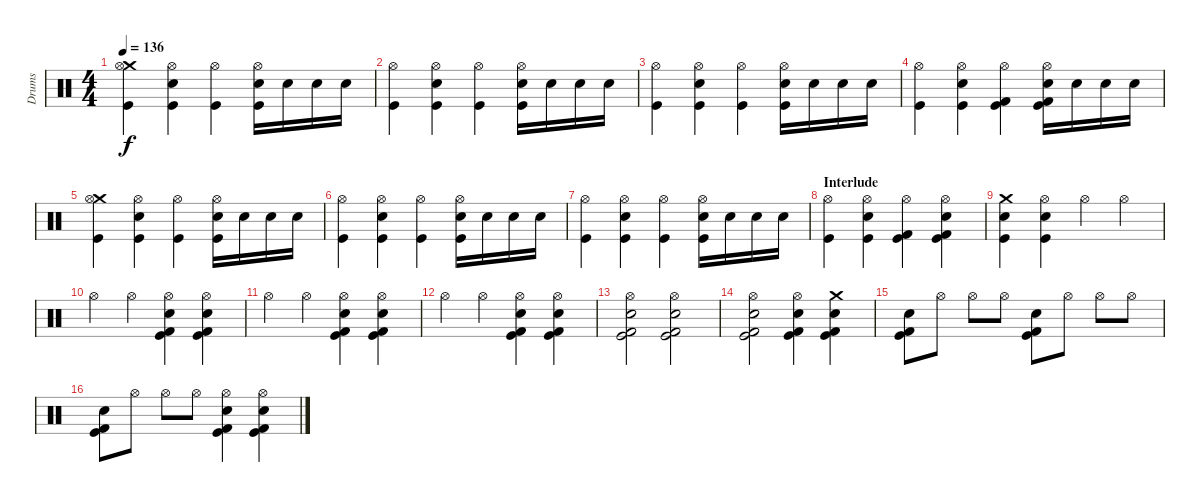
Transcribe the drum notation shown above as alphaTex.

\track ("Drums" "Drums") {instrument percussion}
\staff {score}
\articulation defaults
\ts (4 4)
\tempo 136
\clef neutral
\ks c
("Crash medium (hit)" "Hi-Hat (open)" "Kick (hit)").4{dy f} ("Hi-Hat (open)" "Electric Snare (hit)" "Kick (hit)").4 ("Hi-Hat (open)" "Kick (hit)").4 ("Hi-Hat (open)" "Electric Snare (hit)" "Kick (hit)").16 "Electric Snare (hit)".16 "Electric Snare (hit)".16 "Electric Snare (hit)".16 |
("Hi-Hat (open)" "Kick (hit)").4 ("Hi-Hat (open)" "Electric Snare (hit)" "Kick (hit)").4 ("Hi-Hat (open)" "Kick (hit)").4 ("Hi-Hat (open)" "Electric Snare (hit)" "Kick (hit)").16 "Electric Snare (hit)".16 "Electric Snare (hit)".16 "Electric Snare (hit)".16 |
("Hi-Hat (open)" "Kick (hit)").4 ("Hi-Hat (open)" "Electric Snare (hit)" "Kick (hit)").4 ("Hi-Hat (open)" "Kick (hit)").4 ("Hi-Hat (open)" "Electric Snare (hit)" "Kick (hit)").16 "Electric Snare (hit)".16 "Electric Snare (hit)".16 "Electric Snare (hit)".16 |
("Hi-Hat (open)" "Kick (hit)").4 ("Hi-Hat (open)" "Electric Snare (hit)" "Kick (hit)").4 ("Hi-Hat (open)" "Kick (hit) 2" "Kick (hit)").4 ("Hi-Hat (open)" "Electric Snare (hit)" "Kick (hit) 2" "Kick (hit)").16 "Electric Snare (hit)".16 "Electric Snare (hit)".16 "Electric Snare (hit)".16 |
("Crash medium (hit)" "Hi-Hat (open)" "Kick (hit)").4 ("Hi-Hat (open)" "Electric Snare (hit)" "Kick (hit)").4 ("Hi-Hat (open)" "Kick (hit)").4 ("Hi-Hat (open)" "Electric Snare (hit)" "Kick (hit)").16 "Electric Snare (hit)".16 "Electric Snare (hit)".16 "Electric Snare (hit)".16 |
("Hi-Hat (open)" "Kick (hit)").4 ("Hi-Hat (open)" "Electric Snare (hit)" "Kick (hit)").4 ("Hi-Hat (open)" "Kick (hit)").4 ("Hi-Hat (open)" "Electric Snare (hit)" "Kick (hit)").16 "Electric Snare (hit)".16 "Electric Snare (hit)".16 "Electric Snare (hit)".16 |
("Hi-Hat (open)" "Kick (hit)").4 ("Hi-Hat (open)" "Electric Snare (hit)" "Kick (hit)").4 ("Hi-Hat (open)" "Kick (hit)").4 ("Hi-Hat (open)" "Electric Snare (hit)" "Kick (hit)").16 "Electric Snare (hit)".16 "Electric Snare (hit)".16 "Electric Snare (hit)".16 |
\section ("" "Interlude")
("Hi-Hat (open)" "Kick (hit)").4 ("Hi-Hat (open)" "Electric Snare (hit)" "Kick (hit)").4 ("Hi-Hat (open)" "Kick (hit) 2" "Kick (hit)").4 ("Hi-Hat (open)" "Electric Snare (hit)" "Kick (hit) 2" "Kick (hit)").4 |
("Crash medium (hit)" "Electric Snare (hit)" "Kick (hit)").4 ("Hi-Hat (open)" "Electric Snare (hit)" "Kick (hit)").4 "Hi-Hat (open)".4 "Hi-Hat (open)".4 |
"Hi-Hat (open)".4 "Hi-Hat (open)".4 ("Hi-Hat (open)" "Electric Snare (hit)" "Kick (hit) 2" "Kick (hit)").4 ("Hi-Hat (open)" "Electric Snare (hit)" "Kick (hit) 2" "Kick (hit)").4 |
"Hi-Hat (open)".4 "Hi-Hat (open)".4 ("Hi-Hat (open)" "Electric Snare (hit)" "Kick (hit) 2" "Kick (hit)").4 ("Hi-Hat (open)" "Electric Snare (hit)" "Kick (hit) 2" "Kick (hit)").4 |
"Hi-Hat (open)".4 "Hi-Hat (open)".4 ("Hi-Hat (open)" "Electric Snare (hit)" "Kick (hit) 2" "Kick (hit)").4 ("Hi-Hat (open)" "Electric Snare (hit)" "Kick (hit) 2" "Kick (hit)").4 |
("Hi-Hat (open)" "Electric Snare (hit)" "Kick (hit) 2" "Kick (hit)").2 ("Hi-Hat (open)" "Electric Snare (hit)" "Kick (hit) 2" "Kick (hit)").2 |
("Hi-Hat (open)" "Electric Snare (hit)" "Kick (hit) 2" "Kick (hit)").2 ("Hi-Hat (open)" "Electric Snare (hit)" "Kick (hit) 2" "Kick (hit)").4 ("Crash medium (hit)" "Electric Snare (hit)" "Kick (hit) 2" "Kick (hit)").4 |
("Electric Snare (hit)" "Kick (hit) 2" "Kick (hit)").8 "Hi-Hat (open)".8 "Hi-Hat (open)".8 "Hi-Hat (open)".8 ("Electric Snare (hit)" "Kick (hit) 2" "Kick (hit)").8 "Hi-Hat (open)".8 "Hi-Hat (open)".8 "Hi-Hat (open)".8 |
("Electric Snare (hit)" "Kick (hit) 2" "Kick (hit)").8 "Hi-Hat (open)".8 "Hi-Hat (open)".8 "Hi-Hat (open)".8 ("Hi-Hat (open)" "Electric Snare (hit)" "Kick (hit) 2" "Kick (hit)").4 ("Hi-Hat (open)" "Electric Snare (hit)" "Kick (hit) 2" "Kick (hit)").4
